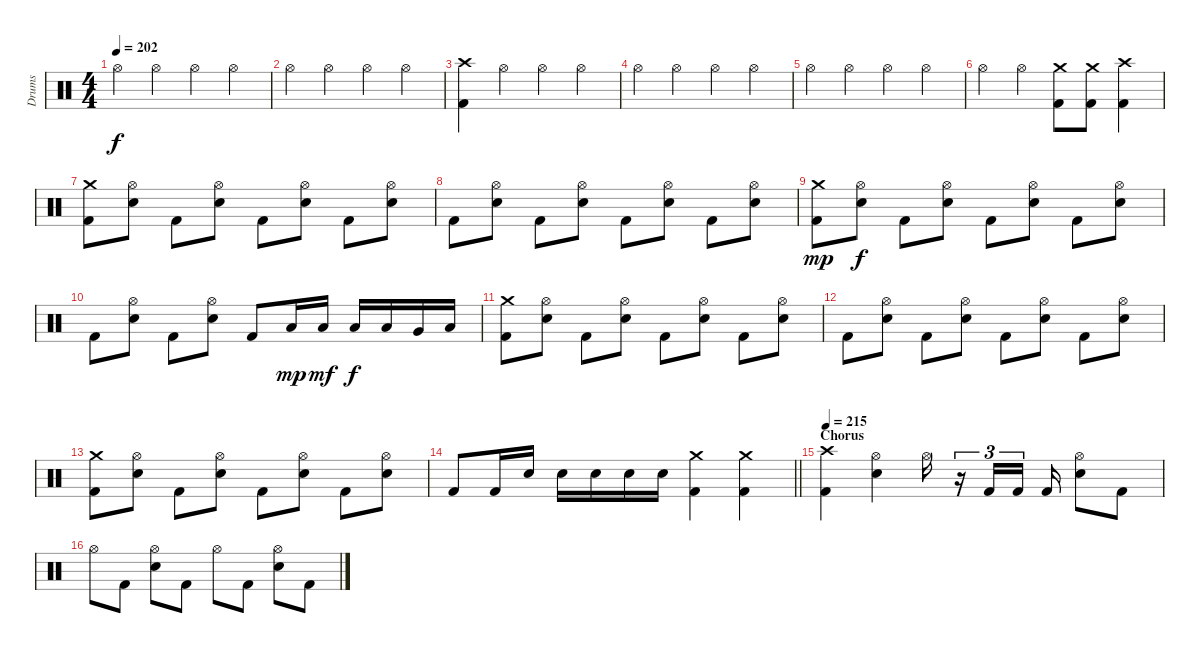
\track ("Drums" "Drums") {instrument percussion}
\staff {score}
\articulation defaults
\ts (4 4)
\tempo 202
\clef neutral
\ks c "Hi-Hat (open)".4{dy f} "Hi-Hat (open)".4 "Hi-Hat (open)".4 "Hi-Hat (open)".4
|
"Hi-Hat (open)".4 "Hi-Hat (open)".4 "Hi-Hat (open)".4 "Hi-Hat (open)".4 |
("Crash high (hit)" "Kick (hit) 2").4 "Hi-Hat (open)".4 "Hi-Hat (open)".4 "Hi-Hat (open)".4 |
"Hi-Hat (open)".4 "Hi-Hat (open)".4 "Hi-Hat (open)".4 "Hi-Hat (open)".4 |
"Hi-Hat (open)".4 "Hi-Hat (open)".4 "Hi-Hat (open)".4 "Hi-Hat (open)".4 |
"Hi-Hat (open)".4 "Hi-Hat (open)".4 ("Crash medium (hit)" "Kick (hit) 2").8 ("Crash medium (hit)" "Kick (hit) 2").8 ("Crash high (hit)" "Kick (hit) 2").4 |
("Crash medium (hit)" "Kick (hit) 2").8 ("Hi-Hat (open)" "Snare (hit) 2").8 "Kick (hit) 2".8 ("Hi-Hat (open)" "Snare (hit) 2").8 "Kick (hit) 2".8 ("Hi-Hat (open)" "Snare (hit) 2").8 "Kick (hit) 2".8 ("Hi-Hat (open)" "Snare (hit) 2").8 |
"Kick (hit) 2".8 ("Hi-Hat (open)" "Snare (hit) 2").8 "Kick (hit) 2".8 ("Hi-Hat (open)" "Snare (hit) 2").8 "Kick (hit) 2".8 ("Hi-Hat (open)" "Snare (hit) 2").8 "Kick (hit) 2".8 ("Hi-Hat (open)" "Snare (hit) 2").8 |
("Crash medium (hit)" "Kick (hit) 2").8{dy mp} ("Hi-Hat (open)" "Snare (hit) 2").8{dy f} "Kick (hit) 2".8 ("Hi-Hat (open)" "Snare (hit) 2").8 "Kick (hit) 2".8 ("Hi-Hat (open)" "Snare (hit) 2").8 "Kick (hit) 2".8 ("Hi-Hat (open)" "Snare (hit) 2").8 |
"Kick (hit) 2".8 ("Hi-Hat (open)" "Snare (hit) 2").8 "Kick (hit) 2".8 ("Hi-Hat (open)" "Snare (hit) 2").8 "Kick (hit) 2".8 "Low Tom (hit)".16{dy mp} "Low Tom (hit)".16{dy mf} "Low Tom (hit)".16{dy f} "Low Tom (hit)".16 "Very Low Tom (hit)".16 "Low Floor Tom (hit)".16 |
("Crash medium (hit)" "Kick (hit) 2").8 ("Hi-Hat (open)" "Snare (hit) 2").8 "Kick (hit) 2".8 ("Hi-Hat (open)" "Snare (hit) 2").8 "Kick (hit) 2".8 ("Hi-Hat (open)" "Snare (hit) 2").8 "Kick (hit) 2".8 ("Hi-Hat (open)" "Snare (hit) 2").8 |
"Kick (hit) 2".8 ("Hi-Hat (open)" "Snare (hit) 2").8 "Kick (hit) 2".8 ("Hi-Hat (open)" "Snare (hit) 2").8 "Kick (hit) 2".8 ("Hi-Hat (open)" "Snare (hit) 2").8 "Kick (hit) 2".8 ("Hi-Hat (open)" "Snare (hit) 2").8 |
("Crash medium (hit)" "Kick (hit) 2").8 ("Hi-Hat (open)" "Snare (hit) 2").8 "Kick (hit) 2".8 ("Hi-Hat (open)" "Snare (hit) 2").8 "Kick (hit) 2".8 ("Hi-Hat (open)" "Snare (hit) 2").8 "Kick (hit) 2".8 ("Hi-Hat (open)" "Snare (hit) 2").8 |
\barLineRight lightlight "Kick (hit) 2".8 "Kick (hit) 2".16 "Snare (hit) 2".16 "Snare (hit) 2".16 "Snare (hit) 2".16 "Snare (hit) 2".16 "Snare (hit) 2".16
("Crash medium (hit)" "Kick (hit) 2").4 ("Crash medium (hit)" "Kick (hit) 2").4 |
\section ("" "Chorus")
\tempo 215
("Crash high (hit)" "Kick (hit) 2").4 ("Hi-Hat (open)" "Snare (hit) 2").4 "Hi-Hat (open)".16 r.16{tu (3 2)} "Kick (hit) 2".16{tu (3 2)} "Kick (hit) 2".16{tu (3 2) beam splitsecondary} "Kick (hit) 2".16 ("Hi-Hat (open)" "Snare (hit) 2").8 "Kick (hit) 2".8 |
"Hi-Hat (open)".8 "Kick (hit) 2".8 ("Hi-Hat (open)" "Snare (hit) 2").8 "Kick (hit) 2".8 "Hi-Hat (open)".8 "Kick (hit) 2".8 ("Hi-Hat (open)" "Snare (hit) 2").8 "Kick (hit) 2".8
